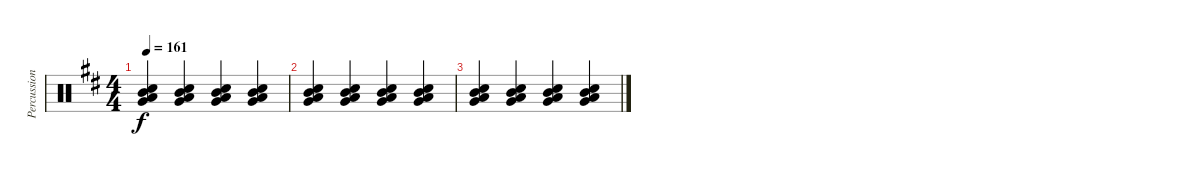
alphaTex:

\track ("Percussion" "Percussion") {instrument percussion}
\staff {score}
\articulation defaults
\ts (4 4)
\tempo 161
\clef neutral
\ks d
("Low Tom (hit)" "Mid Tom (hit)" "Electric Snare (hit)" "Very Low Tom (hit)").4{dy f} ("Low Tom (hit)" "Mid Tom (hit)" "Electric Snare (hit)" "Very Low Tom (hit)").4 ("Low Tom (hit)" "Mid Tom (hit)" "Electric Snare (hit)" "Very Low Tom (hit)").4 ("Low Tom (hit)" "Mid Tom (hit)" "Electric Snare (hit)" "Very Low Tom (hit)").4 |
("Low Tom (hit)" "Mid Tom (hit)" "Electric Snare (hit)" "Very Low Tom (hit)").4 ("Low Tom (hit)" "Mid Tom (hit)" "Electric Snare (hit)" "Very Low Tom (hit)").4 ("Low Tom (hit)" "Mid Tom (hit)" "Electric Snare (hit)" "Very Low Tom (hit)").4 ("Low Tom (hit)" "Mid Tom (hit)" "Electric Snare (hit)" "Very Low Tom (hit)").4 |
("Low Tom (hit)" "Mid Tom (hit)" "Electric Snare (hit)" "Very Low Tom (hit)").4 ("Low Tom (hit)" "Mid Tom (hit)" "Electric Snare (hit)" "Very Low Tom (hit)").4 ("Low Tom (hit)" "Mid Tom (hit)" "Electric Snare (hit)" "Very Low Tom (hit)").4 ("Low Tom (hit)" "Mid Tom (hit)" "Electric Snare (hit)" "Very Low Tom (hit)").4
